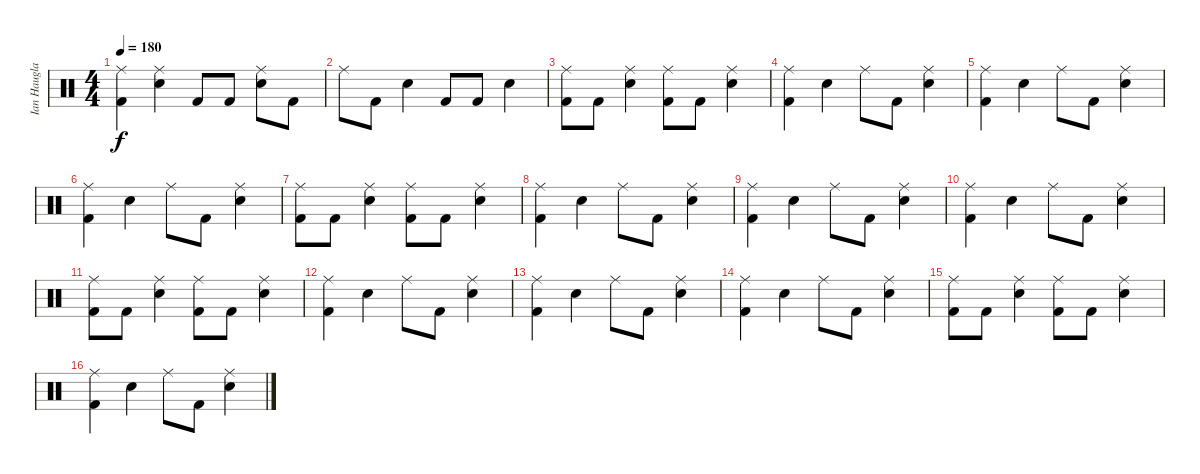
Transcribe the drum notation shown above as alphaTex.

\track ("Ian Haugland drums" "Ian Haugla") {instrument percussion}
\staff {score}
\articulation defaults
\ts (4 4)
\tempo 180
\clef neutral
\ks c
("Ride (middle)" "Kick (hit) 2").4{dy f} ("Ride (middle)" "Snare (hit) 2").4 "Kick (hit) 2".8 "Kick (hit) 2".8 ("Ride (middle)" "Snare (hit) 2").8 "Kick (hit) 2".8 |
"Ride (middle)".8 "Kick (hit) 2".8 "Snare (hit) 2".4 "Kick (hit) 2".8 "Kick (hit) 2".8 "Snare (hit) 2".4 |
("Ride (middle)" "Kick (hit) 2").8 "Kick (hit) 2".8 ("Ride (middle)" "Snare (hit) 2").4 ("Ride (middle)" "Kick (hit) 2").8 "Kick (hit) 2".8 ("Ride (middle)" "Snare (hit) 2").4 |
("Ride (middle)" "Kick (hit) 2").4 "Snare (hit) 2".4 "Ride (middle)".8 "Kick (hit) 2".8 ("Ride (middle)" "Snare (hit) 2").4 |
("Ride (middle)" "Kick (hit) 2").4 "Snare (hit) 2".4 "Ride (middle)".8 "Kick (hit) 2".8 ("Ride (middle)" "Snare (hit) 2").4 |
("Ride (middle)" "Kick (hit) 2").4 "Snare (hit) 2".4 "Ride (middle)".8 "Kick (hit) 2".8 ("Ride (middle)" "Snare (hit) 2").4 |
("Ride (middle)" "Kick (hit) 2").8 "Kick (hit) 2".8 ("Ride (middle)" "Snare (hit) 2").4 ("Ride (middle)" "Kick (hit) 2").8 "Kick (hit) 2".8 ("Ride (middle)" "Snare (hit) 2").4 |
("Ride (middle)" "Kick (hit) 2").4 "Snare (hit) 2".4 "Ride (middle)".8 "Kick (hit) 2".8 ("Ride (middle)" "Snare (hit) 2").4 |
("Ride (middle)" "Kick (hit) 2").4 "Snare (hit) 2".4 "Ride (middle)".8 "Kick (hit) 2".8 ("Ride (middle)" "Snare (hit) 2").4 |
("Ride (middle)" "Kick (hit) 2").4 "Snare (hit) 2".4 "Ride (middle)".8 "Kick (hit) 2".8 ("Ride (middle)" "Snare (hit) 2").4 |
("Ride (middle)" "Kick (hit) 2").8 "Kick (hit) 2".8 ("Ride (middle)" "Snare (hit) 2").4 ("Ride (middle)" "Kick (hit) 2").8 "Kick (hit) 2".8 ("Ride (middle)" "Snare (hit) 2").4 |
("Ride (middle)" "Kick (hit) 2").4 "Snare (hit) 2".4 "Ride (middle)".8 "Kick (hit) 2".8 ("Ride (middle)" "Snare (hit) 2").4 |
("Ride (middle)" "Kick (hit) 2").4 "Snare (hit) 2".4 "Ride (middle)".8 "Kick (hit) 2".8 ("Ride (middle)" "Snare (hit) 2").4 |
("Ride (middle)" "Kick (hit) 2").4 "Snare (hit) 2".4 "Ride (middle)".8 "Kick (hit) 2".8 ("Ride (middle)" "Snare (hit) 2").4 |
("Ride (middle)" "Kick (hit) 2").8 "Kick (hit) 2".8 ("Ride (middle)" "Snare (hit) 2").4 ("Ride (middle)" "Kick (hit) 2").8 "Kick (hit) 2".8 ("Ride (middle)" "Snare (hit) 2").4 |
("Ride (middle)" "Kick (hit) 2").4 "Snare (hit) 2".4 "Ride (middle)".8 "Kick (hit) 2".8 ("Ride (middle)" "Snare (hit) 2").4
